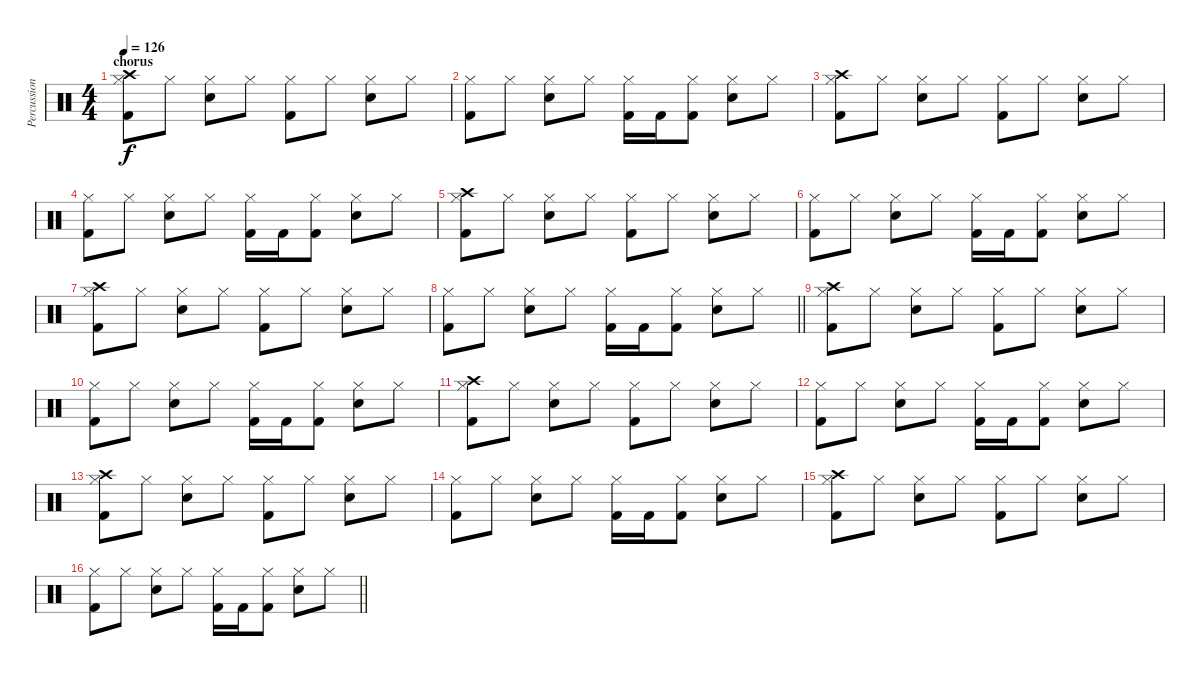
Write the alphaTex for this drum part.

\track ("Percussion" "Percussion") {instrument percussion}
\staff {score}
\articulation defaults
\ts (4 4)
\section ("" "chorus")
\tempo 126
\clef neutral
\ks c
("Hi-Hat (closed)" "Crash high (hit)" "Kick (hit) 2").8{dy f} "Hi-Hat (closed)".8 ("Hi-Hat (closed)" "Electric Snare (hit)").8 "Hi-Hat (closed)".8 ("Hi-Hat (closed)" "Kick (hit) 2").8 "Hi-Hat (closed)".8 ("Hi-Hat (closed)" "Electric Snare (hit)").8 "Hi-Hat (closed)".8 |
("Hi-Hat (closed)" "Kick (hit) 2").8 "Hi-Hat (closed)".8 ("Hi-Hat (closed)" "Electric Snare (hit)").8 "Hi-Hat (closed)".8 ("Hi-Hat (closed)" "Kick (hit) 2").16 "Kick (hit) 2".16 ("Hi-Hat (closed)" "Kick (hit) 2").8 ("Hi-Hat (closed)" "Electric Snare (hit)").8 "Hi-Hat (closed)".8 |
("Hi-Hat (closed)" "Crash high (hit)" "Kick (hit) 2").8 "Hi-Hat (closed)".8 ("Hi-Hat (closed)" "Electric Snare (hit)").8 "Hi-Hat (closed)".8 ("Hi-Hat (closed)" "Kick (hit) 2").8 "Hi-Hat (closed)".8 ("Hi-Hat (closed)" "Electric Snare (hit)").8 "Hi-Hat (closed)".8 |
("Hi-Hat (closed)" "Kick (hit) 2").8 "Hi-Hat (closed)".8 ("Hi-Hat (closed)" "Electric Snare (hit)").8 "Hi-Hat (closed)".8 ("Hi-Hat (closed)" "Kick (hit) 2").16 "Kick (hit) 2".16 ("Hi-Hat (closed)" "Kick (hit) 2").8 ("Hi-Hat (closed)" "Electric Snare (hit)").8 "Hi-Hat (closed)".8 |
("Hi-Hat (closed)" "Crash high (hit)" "Kick (hit) 2").8 "Hi-Hat (closed)".8 ("Hi-Hat (closed)" "Electric Snare (hit)").8 "Hi-Hat (closed)".8 ("Hi-Hat (closed)" "Kick (hit) 2").8 "Hi-Hat (closed)".8 ("Hi-Hat (closed)" "Electric Snare (hit)").8 "Hi-Hat (closed)".8 |
("Hi-Hat (closed)" "Kick (hit) 2").8 "Hi-Hat (closed)".8 ("Hi-Hat (closed)" "Electric Snare (hit)").8 "Hi-Hat (closed)".8 ("Hi-Hat (closed)" "Kick (hit) 2").16 "Kick (hit) 2".16 ("Hi-Hat (closed)" "Kick (hit) 2").8 ("Hi-Hat (closed)" "Electric Snare (hit)").8 "Hi-Hat (closed)".8 |
("Hi-Hat (closed)" "Crash high (hit)" "Kick (hit) 2").8 "Hi-Hat (closed)".8 ("Hi-Hat (closed)" "Electric Snare (hit)").8 "Hi-Hat (closed)".8 ("Hi-Hat (closed)" "Kick (hit) 2").8 "Hi-Hat (closed)".8 ("Hi-Hat (closed)" "Electric Snare (hit)").8 "Hi-Hat (closed)".8 |
\barLineRight lightlight
("Hi-Hat (closed)" "Kick (hit) 2").8 "Hi-Hat (closed)".8 ("Hi-Hat (closed)" "Electric Snare (hit)").8 "Hi-Hat (closed)".8 ("Hi-Hat (closed)" "Kick (hit) 2").16 "Kick (hit) 2".16 ("Hi-Hat (closed)" "Kick (hit) 2").8 ("Hi-Hat (closed)" "Electric Snare (hit)").8 "Hi-Hat (closed)".8 |
("Hi-Hat (closed)" "Crash high (hit)" "Kick (hit) 2").8 "Hi-Hat (closed)".8 ("Hi-Hat (closed)" "Electric Snare (hit)").8 "Hi-Hat (closed)".8 ("Hi-Hat (closed)" "Kick (hit) 2").8 "Hi-Hat (closed)".8 ("Hi-Hat (closed)" "Electric Snare (hit)").8 "Hi-Hat (closed)".8 |
("Hi-Hat (closed)" "Kick (hit) 2").8 "Hi-Hat (closed)".8 ("Hi-Hat (closed)" "Electric Snare (hit)").8 "Hi-Hat (closed)".8 ("Hi-Hat (closed)" "Kick (hit) 2").16 "Kick (hit) 2".16 ("Hi-Hat (closed)" "Kick (hit) 2").8 ("Hi-Hat (closed)" "Electric Snare (hit)").8 "Hi-Hat (closed)".8 |
("Hi-Hat (closed)" "Crash high (hit)" "Kick (hit) 2").8 "Hi-Hat (closed)".8 ("Hi-Hat (closed)" "Electric Snare (hit)").8 "Hi-Hat (closed)".8 ("Hi-Hat (closed)" "Kick (hit) 2").8 "Hi-Hat (closed)".8 ("Hi-Hat (closed)" "Electric Snare (hit)").8 "Hi-Hat (closed)".8 |
("Hi-Hat (closed)" "Kick (hit) 2").8 "Hi-Hat (closed)".8 ("Hi-Hat (closed)" "Electric Snare (hit)").8 "Hi-Hat (closed)".8 ("Hi-Hat (closed)" "Kick (hit) 2").16 "Kick (hit) 2".16 ("Hi-Hat (closed)" "Kick (hit) 2").8 ("Hi-Hat (closed)" "Electric Snare (hit)").8 "Hi-Hat (closed)".8 |
("Hi-Hat (closed)" "Crash high (hit)" "Kick (hit) 2").8 "Hi-Hat (closed)".8 ("Hi-Hat (closed)" "Electric Snare (hit)").8 "Hi-Hat (closed)".8 ("Hi-Hat (closed)" "Kick (hit) 2").8 "Hi-Hat (closed)".8 ("Hi-Hat (closed)" "Electric Snare (hit)").8 "Hi-Hat (closed)".8 |
("Hi-Hat (closed)" "Kick (hit) 2").8 "Hi-Hat (closed)".8 ("Hi-Hat (closed)" "Electric Snare (hit)").8 "Hi-Hat (closed)".8 ("Hi-Hat (closed)" "Kick (hit) 2").16 "Kick (hit) 2".16 ("Hi-Hat (closed)" "Kick (hit) 2").8 ("Hi-Hat (closed)" "Electric Snare (hit)").8 "Hi-Hat (closed)".8 |
("Hi-Hat (closed)" "Crash high (hit)" "Kick (hit) 2").8 "Hi-Hat (closed)".8 ("Hi-Hat (closed)" "Electric Snare (hit)").8 "Hi-Hat (closed)".8 ("Hi-Hat (closed)" "Kick (hit) 2").8 "Hi-Hat (closed)".8 ("Hi-Hat (closed)" "Electric Snare (hit)").8 "Hi-Hat (closed)".8 |
\barLineRight lightlight
("Hi-Hat (closed)" "Kick (hit) 2").8 "Hi-Hat (closed)".8 ("Hi-Hat (closed)" "Electric Snare (hit)").8 "Hi-Hat (closed)".8 ("Hi-Hat (closed)" "Kick (hit) 2").16 "Kick (hit) 2".16 ("Hi-Hat (closed)" "Kick (hit) 2").8 ("Hi-Hat (closed)" "Electric Snare (hit)").8 "Hi-Hat (closed)".8
